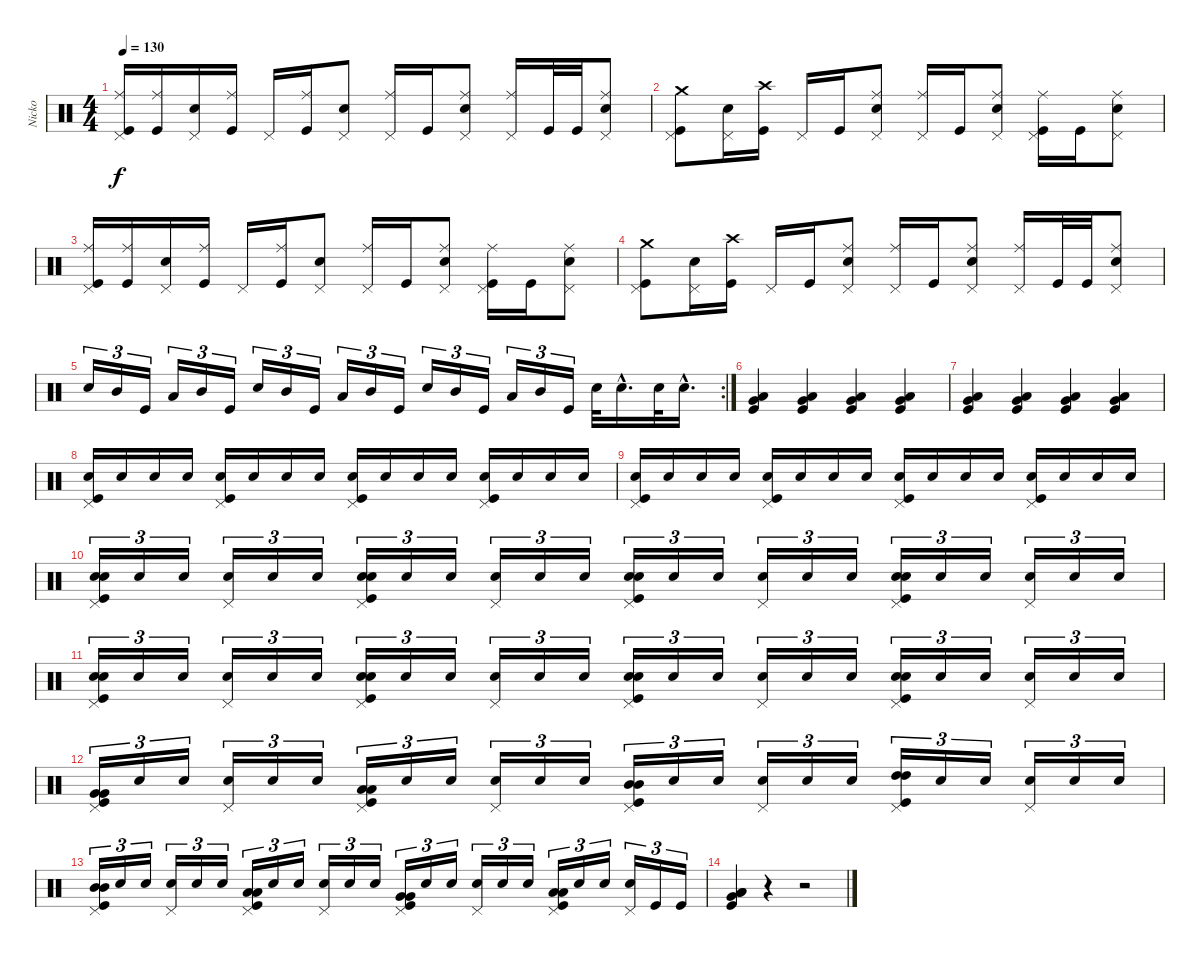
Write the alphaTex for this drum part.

\track ("Nicko" "Nicko") {instrument percussion}
\staff {score}
\articulation defaults
\ts (4 4)
\tempo 130
\clef neutral
\ks c
("Ride (middle)" "Pedal Hi-Hat (hit)" "Kick (hit)").16{dy f} ("Ride (middle)" "Kick (hit)").16 ("Snare (hit) 2" "Pedal Hi-Hat (hit)").16 ("Ride (middle)" "Kick (hit)").16 "Pedal Hi-Hat (hit)".16 ("Ride (middle)" "Kick (hit)").16 ("Snare (hit) 2" "Pedal Hi-Hat (hit)").8 ("Ride (middle)" "Pedal Hi-Hat (hit)").16 "Kick (hit)".16 ("Ride (middle)" "Snare (hit) 2" "Pedal Hi-Hat (hit)").8 ("Ride (middle)" "Pedal Hi-Hat (hit)").16 "Kick (hit)".32 "Kick (hit)".32 ("Ride (middle)" "Snare (hit) 2" "Pedal Hi-Hat (hit)").8 |
("Crash medium (hit)" "Pedal Hi-Hat (hit)" "Kick (hit)").8 ("Snare (hit) 2" "Pedal Hi-Hat (hit)").16 ("Crash high (hit)" "Kick (hit)").16 "Pedal Hi-Hat (hit)".16 "Kick (hit)".16 ("Ride (middle)" "Snare (hit) 2" "Pedal Hi-Hat (hit)").8 ("Ride (middle)" "Pedal Hi-Hat (hit)").16 "Kick (hit)".16 ("Ride (middle)" "Snare (hit) 2" "Pedal Hi-Hat (hit)").8 ("Ride (middle)" "Pedal Hi-Hat (hit)" "Kick (hit)").16 "Kick (hit)".16 ("Ride (middle)" "Snare (hit) 2" "Pedal Hi-Hat (hit)").8 |
("Ride (middle)" "Pedal Hi-Hat (hit)" "Kick (hit)").16 ("Ride (middle)" "Kick (hit)").16 ("Snare (hit) 2" "Pedal Hi-Hat (hit)").16 ("Ride (middle)" "Kick (hit)").16 "Pedal Hi-Hat (hit)".16 ("Ride (middle)" "Kick (hit)").16 ("Snare (hit) 2" "Pedal Hi-Hat (hit)").8 ("Ride (middle)" "Pedal Hi-Hat (hit)").16 "Kick (hit)".16 ("Ride (middle)" "Snare (hit) 2" "Pedal Hi-Hat (hit)").8 ("Ride (middle)" "Pedal Hi-Hat (hit)" "Kick (hit)").16 "Kick (hit)".16 ("Ride (middle)" "Snare (hit) 2" "Pedal Hi-Hat (hit)").8 |
("Crash medium (hit)" "Pedal Hi-Hat (hit)" "Kick (hit)").8 ("Snare (hit) 2" "Pedal Hi-Hat (hit)").16 ("Crash high (hit)" "Kick (hit)").16 "Pedal Hi-Hat (hit)".16 "Kick (hit)".16 ("Ride (middle)" "Snare (hit) 2" "Pedal Hi-Hat (hit)").8 ("Ride (middle)" "Pedal Hi-Hat (hit)").16 "Kick (hit)".16 ("Ride (middle)" "Snare (hit) 2" "Pedal Hi-Hat (hit)").8 ("Ride (middle)" "Pedal Hi-Hat (hit)").16 "Kick (hit)".32 "Kick (hit)".32 ("Ride (middle)" "Snare (hit) 2" "Pedal Hi-Hat (hit)").8 |
\rc 2 "Snare (hit) 2".16{tu (3 2)} "Mid Tom (hit)".16{tu (3 2)} "Kick (hit)".16{tu (3 2)} "Low Tom (hit)".16{tu (3 2)} "Mid Tom (hit)".16{tu (3 2)} "Kick (hit)".16{tu (3 2)} "Snare (hit) 2".16{tu (3 2)} "Mid Tom (hit)".16{tu (3 2)} "Kick (hit)".16{tu (3 2)} "Low Tom (hit)".16{tu (3 2)} "Mid Tom (hit)".16{tu (3 2)} "Kick (hit)".16{tu (3 2)} "Snare (hit) 2".16{tu (3 2)} "Mid Tom (hit)".16{tu (3 2)} "Kick (hit)".16{tu (3 2)} "Low Tom (hit)".16{tu (3 2)} "Mid Tom (hit)".16{tu (3 2)} "Kick (hit)".16{tu (3 2)} "Snare (hit) 2".32 "Snare (hit) 2"{hac}.16{d} "Snare (hit) 2".32 "Snare (hit) 2"{hac}.16{d}
|
("Very Low Tom (hit)" "Low Floor Tom (hit)" "Kick (hit)").4 ("Very Low Tom (hit)" "Low Floor Tom (hit)" "Kick (hit)").4 ("Very Low Tom (hit)" "Low Floor Tom (hit)" "Kick (hit)").4 ("Very Low Tom (hit)" "Low Floor Tom (hit)" "Kick (hit)").4 |
("Very Low Tom (hit)" "Low Floor Tom (hit)" "Kick (hit)").4 ("Very Low Tom (hit)" "Low Floor Tom (hit)" "Kick (hit)").4 ("Very Low Tom (hit)" "Low Floor Tom (hit)" "Kick (hit)").4 ("Very Low Tom (hit)" "Low Floor Tom (hit)" "Kick (hit)").4 |
("Snare (hit) 2" "Pedal Hi-Hat (hit)" "Kick (hit)").16 "Snare (hit) 2".16 "Snare (hit) 2".16 "Snare (hit) 2".16 ("Snare (hit) 2" "Pedal Hi-Hat (hit)" "Kick (hit)").16 "Snare (hit) 2".16 "Snare (hit) 2".16 "Snare (hit) 2".16 ("Snare (hit) 2" "Pedal Hi-Hat (hit)" "Kick (hit)").16 "Snare (hit) 2".16 "Snare (hit) 2".16 "Snare (hit) 2".16 ("Snare (hit) 2" "Pedal Hi-Hat (hit)" "Kick (hit)").16 "Snare (hit) 2".16 "Snare (hit) 2".16 "Snare (hit) 2".16 |
("Snare (hit) 2" "Pedal Hi-Hat (hit)" "Kick (hit)").16 "Snare (hit) 2".16 "Snare (hit) 2".16 "Snare (hit) 2".16 ("Snare (hit) 2" "Pedal Hi-Hat (hit)" "Kick (hit)").16 "Snare (hit) 2".16 "Snare (hit) 2".16 "Snare (hit) 2".16 ("Snare (hit) 2" "Pedal Hi-Hat (hit)" "Kick (hit)").16 "Snare (hit) 2".16 "Snare (hit) 2".16 "Snare (hit) 2".16 ("Snare (hit) 2" "Pedal Hi-Hat (hit)" "Kick (hit)").16 "Snare (hit) 2".16 "Snare (hit) 2".16 "Snare (hit) 2".16 |
("Snare (hit) 2" "Snare (hit) 2" "Pedal Hi-Hat (hit)" "Kick (hit)").16{tu (3 2)} "Snare (hit) 2".16{tu (3 2)} "Snare (hit) 2".16{tu (3 2)} ("Snare (hit) 2" "Pedal Hi-Hat (hit)").16{tu (3 2)} "Snare (hit) 2".16{tu (3 2)} "Snare (hit) 2".16{tu (3 2)} ("Snare (hit) 2" "Snare (hit) 2" "Pedal Hi-Hat (hit)" "Kick (hit)").16{tu (3 2)} "Snare (hit) 2".16{tu (3 2)} "Snare (hit) 2".16{tu (3 2)} ("Snare (hit) 2" "Pedal Hi-Hat (hit)").16{tu (3 2)} "Snare (hit) 2".16{tu (3 2)} "Snare (hit) 2".16{tu (3 2)} ("Snare (hit) 2" "Snare (hit) 2" "Pedal Hi-Hat (hit)" "Kick (hit)").16{tu (3 2)} "Snare (hit) 2".16{tu (3 2)} "Snare (hit) 2".16{tu (3 2)} ("Snare (hit) 2" "Pedal Hi-Hat (hit)").16{tu (3 2)} "Snare (hit) 2".16{tu (3 2)} "Snare (hit) 2".16{tu (3 2)} ("Snare (hit) 2" "Snare (hit) 2" "Pedal Hi-Hat (hit)" "Kick (hit)").16{tu (3 2)} "Snare (hit) 2".16{tu (3 2)} "Snare (hit) 2".16{tu (3 2)} ("Snare (hit) 2" "Pedal Hi-Hat (hit)").16{tu (3 2)} "Snare (hit) 2".16{tu (3 2)} "Snare (hit) 2".16{tu (3 2)} |
("Snare (hit) 2" "Snare (hit) 2" "Pedal Hi-Hat (hit)" "Kick (hit)").16{tu (3 2)} "Snare (hit) 2".16{tu (3 2)} "Snare (hit) 2".16{tu (3 2)} ("Snare (hit) 2" "Pedal Hi-Hat (hit)").16{tu (3 2)} "Snare (hit) 2".16{tu (3 2)} "Snare (hit) 2".16{tu (3 2)} ("Snare (hit) 2" "Snare (hit) 2" "Pedal Hi-Hat (hit)" "Kick (hit)").16{tu (3 2)} "Snare (hit) 2".16{tu (3 2)} "Snare (hit) 2".16{tu (3 2)} ("Snare (hit) 2" "Pedal Hi-Hat (hit)").16{tu (3 2)} "Snare (hit) 2".16{tu (3 2)} "Snare (hit) 2".16{tu (3 2)} ("Snare (hit) 2" "Snare (hit) 2" "Pedal Hi-Hat (hit)" "Kick (hit)").16{tu (3 2)} "Snare (hit) 2".16{tu (3 2)} "Snare (hit) 2".16{tu (3 2)} ("Snare (hit) 2" "Pedal Hi-Hat (hit)").16{tu (3 2)} "Snare (hit) 2".16{tu (3 2)} "Snare (hit) 2".16{tu (3 2)} ("Snare (hit) 2" "Snare (hit) 2" "Pedal Hi-Hat (hit)" "Kick (hit)").16{tu (3 2)} "Snare (hit) 2".16{tu (3 2)} "Snare (hit) 2".16{tu (3 2)} ("Snare (hit) 2" "Pedal Hi-Hat (hit)").16{tu (3 2)} "Snare (hit) 2".16{tu (3 2)} "Snare (hit) 2".16{tu (3 2)} |
("Very Low Tom (hit)" "Very Low Tom (hit)" "Pedal Hi-Hat (hit)" "Kick (hit)").16{tu (3 2)} "Snare (hit) 2".16{tu (3 2)} "Snare (hit) 2".16{tu (3 2)} ("Snare (hit) 2" "Pedal Hi-Hat (hit)").16{tu (3 2)} "Snare (hit) 2".16{tu (3 2)} "Snare (hit) 2".16{tu (3 2)} ("Low Tom (hit)" "Low Tom (hit)" "Pedal Hi-Hat (hit)" "Kick (hit)").16{tu (3 2)} "Snare (hit) 2".16{tu (3 2)} "Snare (hit) 2".16{tu (3 2)} ("Snare (hit) 2" "Pedal Hi-Hat (hit)").16{tu (3 2)} "Snare (hit) 2".16{tu (3 2)} "Snare (hit) 2".16{tu (3 2)} ("Mid Tom (hit)" "Mid Tom (hit)" "Pedal Hi-Hat (hit)" "Kick (hit)").16{tu (3 2)} "Snare (hit) 2".16{tu (3 2)} "Snare (hit) 2".16{tu (3 2)} ("Snare (hit) 2" "Pedal Hi-Hat (hit)").16{tu (3 2)} "Snare (hit) 2".16{tu (3 2)} "Snare (hit) 2".16{tu (3 2)} ("High Tom (hit)" "High Tom (hit)" "Pedal Hi-Hat (hit)" "Kick (hit)").16{tu (3 2)} "Snare (hit) 2".16{tu (3 2)} "Snare (hit) 2".16{tu (3 2)} ("Snare (hit) 2" "Pedal Hi-Hat (hit)").16{tu (3 2)} "Snare (hit) 2".16{tu (3 2)} "Snare (hit) 2".16{tu (3 2)} |
("Mid Tom (hit)" "Mid Tom (hit)" "Pedal Hi-Hat (hit)" "Kick (hit)").16{tu (3 2)} "Snare (hit) 2".16{tu (3 2)} "Snare (hit) 2".16{tu (3 2)} ("Snare (hit) 2" "Pedal Hi-Hat (hit)").16{tu (3 2)} "Snare (hit) 2".16{tu (3 2)} "Snare (hit) 2".16{tu (3 2)} ("Low Tom (hit)" "Low Tom (hit)" "Pedal Hi-Hat (hit)" "Kick (hit)").16{tu (3 2)} "Snare (hit) 2".16{tu (3 2)} "Snare (hit) 2".16{tu (3 2)} ("Snare (hit) 2" "Pedal Hi-Hat (hit)").16{tu (3 2)} "Snare (hit) 2".16{tu (3 2)} "Snare (hit) 2".16{tu (3 2)} ("Very Low Tom (hit)" "Very Low Tom (hit)" "Pedal Hi-Hat (hit)" "Kick (hit)").16{tu (3 2)} "Snare (hit) 2".16{tu (3 2)} "Snare (hit) 2".16{tu (3 2)} ("Snare (hit) 2" "Pedal Hi-Hat (hit)").16{tu (3 2)} "Snare (hit) 2".16{tu (3 2)} "Snare (hit) 2".16{tu (3 2)} ("Low Tom (hit)" "Low Tom (hit)" "Pedal Hi-Hat (hit)" "Kick (hit)").16{tu (3 2)} "Snare (hit) 2".16{tu (3 2)} "Snare (hit) 2".16{tu (3 2)} ("Snare (hit) 2" "Pedal Hi-Hat (hit)").16{tu (3 2)} "Kick (hit)".16{tu (3 2)} "Kick (hit)".16{tu (3 2)} |
("Low Tom (hit)" "Very Low Tom (hit)" "Low Floor Tom (hit)" "Kick (hit)").4 r.4 r.2
